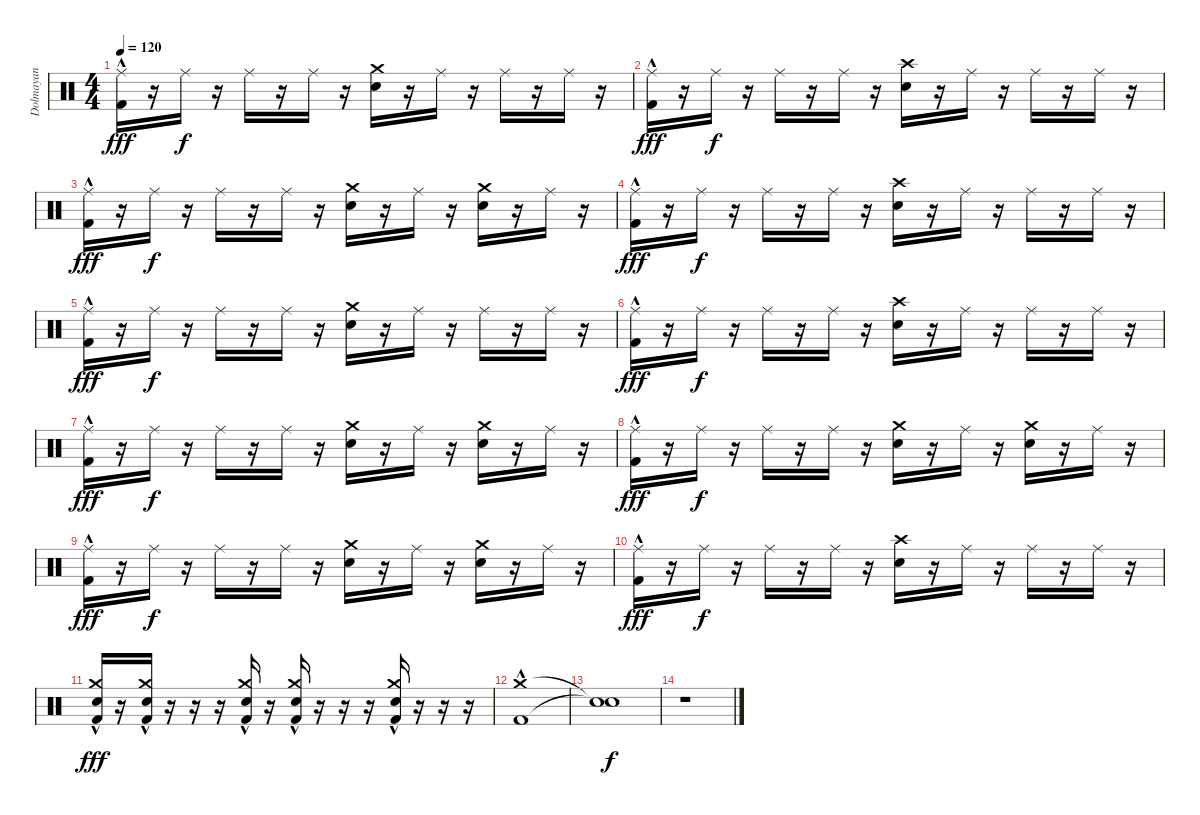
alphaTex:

\track ("Dolmayan" "Dolmayan") {instrument percussion}
\staff {score}
\articulation defaults
\ts (4 4)
\tempo 120
\clef neutral
\ks c
("Ride (middle)" "Kick (hit) 2"{hac}).16{dy fff} r.16 "Ride (middle)".16{dy f} r.16 "Ride (middle)".16 r.16 "Ride (middle)".16 r.16 ("Crash medium (hit)" "Snare (hit) 2").16 r.16 "Ride (middle)".16 r.16 "Ride (middle)".16 r.16 "Ride (middle)".16 r.16 |
("Ride (middle)" "Kick (hit) 2"{hac}).16{dy fff} r.16 "Ride (middle)".16{dy f} r.16 "Ride (middle)".16 r.16 "Ride (middle)".16 r.16 ("Crash high (hit)" "Snare (hit) 2").16 r.16 "Ride (middle)".16 r.16 "Ride (middle)".16 r.16 "Ride (middle)".16 r.16 |
("Ride (middle)" "Kick (hit) 2"{hac}).16{dy fff} r.16 "Ride (middle)".16{dy f} r.16 "Ride (middle)".16 r.16 "Ride (middle)".16 r.16 ("Crash medium (hit)" "Snare (hit) 2").16 r.16 "Ride (middle)".16 r.16 ("Crash medium (hit)" "Snare (hit) 2").16 r.16 "Ride (middle)".16 r.16 |
("Ride (middle)" "Kick (hit) 2"{hac}).16{dy fff} r.16 "Ride (middle)".16{dy f} r.16 "Ride (middle)".16 r.16 "Ride (middle)".16 r.16 ("Crash high (hit)" "Snare (hit) 2").16 r.16 "Ride (middle)".16 r.16 "Ride (middle)".16 r.16 "Ride (middle)".16 r.16 |
("Ride (middle)" "Kick (hit) 2"{hac}).16{dy fff} r.16 "Ride (middle)".16{dy f} r.16 "Ride (middle)".16 r.16 "Ride (middle)".16 r.16 ("Crash medium (hit)" "Snare (hit) 2").16 r.16 "Ride (middle)".16 r.16 "Ride (middle)".16 r.16 "Ride (middle)".16 r.16 |
("Ride (middle)" "Kick (hit) 2"{hac}).16{dy fff} r.16 "Ride (middle)".16{dy f} r.16 "Ride (middle)".16 r.16 "Ride (middle)".16 r.16 ("Crash high (hit)" "Snare (hit) 2").16 r.16 "Ride (middle)".16 r.16 "Ride (middle)".16 r.16 "Ride (middle)".16 r.16 |
("Ride (middle)" "Kick (hit) 2"{hac}).16{dy fff} r.16 "Ride (middle)".16{dy f} r.16 "Ride (middle)".16 r.16 "Ride (middle)".16 r.16 ("Crash medium (hit)" "Snare (hit) 2").16 r.16 "Ride (middle)".16 r.16 ("Crash medium (hit)" "Snare (hit) 2").16 r.16 "Ride (middle)".16 r.16 |
("Ride (middle)" "Kick (hit) 2"{hac}).16{dy fff} r.16 "Ride (middle)".16{dy f} r.16 "Ride (middle)".16 r.16 "Ride (middle)".16 r.16 ("Crash medium (hit)" "Snare (hit) 2").16 r.16 "Ride (middle)".16 r.16 ("Crash medium (hit)" "Snare (hit) 2").16 r.16 "Ride (middle)".16 r.16 |
("Ride (middle)" "Kick (hit) 2"{hac}).16{dy fff} r.16 "Ride (middle)".16{dy f} r.16 "Ride (middle)".16 r.16 "Ride (middle)".16 r.16 ("Crash medium (hit)" "Snare (hit) 2").16 r.16 "Ride (middle)".16 r.16 ("Crash medium (hit)" "Snare (hit) 2").16 r.16 "Ride (middle)".16 r.16 |
("Ride (middle)" "Kick (hit) 2"{hac}).16{dy fff} r.16 "Ride (middle)".16{dy f} r.16 "Ride (middle)".16 r.16 "Ride (middle)".16 r.16 ("Crash high (hit)" "Snare (hit) 2").16 r.16 "Ride (middle)".16 r.16 "Ride (middle)".16 r.16 "Ride (middle)".16 r.16 |
("Crash medium (hit)" "Snare (hit) 2" "Kick (hit) 2"{hac}).16{dy fff} r.16 ("Crash medium (hit)" "Snare (hit) 2" "Kick (hit) 2"{hac}).16 r.16 r.16 r.16 ("Crash medium (hit)" "Snare (hit) 2" "Kick (hit) 2"{hac}).16 r.16 ("Crash medium (hit)" "Snare (hit) 2" "Kick (hit) 2"{hac}).16 r.16 r.16 r.16 ("Crash medium (hit)" "Snare (hit) 2" "Kick (hit) 2"{hac}).16 r.16 r.16 r.16 |
("Crash medium (hit)" "Kick (hit) 2"{hac}).1 |
("Snare (hit)"{t} "Snare (hit)"{t}).1{dy f} |
r.1
